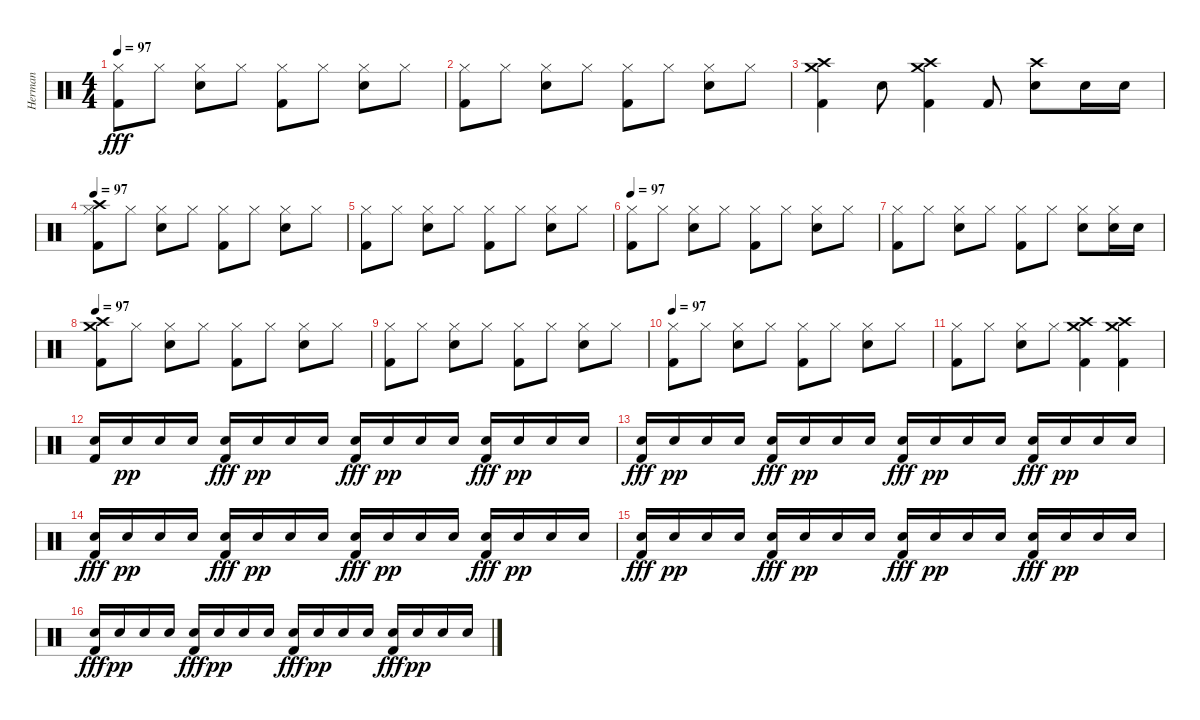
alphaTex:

\track ("Herman" "Herman") {instrument percussion}
\staff {score}
\articulation defaults
\ts (4 4)
\tempo 97
\clef neutral
\ks c
("Hi-Hat (closed)" "Kick (hit) 2").8{dy fff} "Hi-Hat (closed)".8 ("Hi-Hat (closed)" "Snare (hit) 2").8 "Hi-Hat (closed)".8 ("Hi-Hat (closed)" "Kick (hit) 2").8 "Hi-Hat (closed)".8 ("Hi-Hat (closed)" "Snare (hit) 2").8 "Hi-Hat (closed)".8 |
("Hi-Hat (closed)" "Kick (hit) 2").8 "Hi-Hat (closed)".8 ("Hi-Hat (closed)" "Snare (hit) 2").8 "Hi-Hat (closed)".8 ("Hi-Hat (closed)" "Kick (hit) 2").8 "Hi-Hat (closed)".8 ("Hi-Hat (closed)" "Snare (hit) 2").8 "Hi-Hat (closed)".8 |
("Crash high (hit)" "Crash medium (hit)" "Kick (hit) 2").4 "Snare (hit) 2".8 ("Crash high (hit)" "Crash medium (hit)" "Kick (hit) 2").4 "Kick (hit) 2".8 ("Crash high (hit)" "Snare (hit) 2").8 "Snare (hit) 2".16 "Snare (hit) 2".16 |
\tempo 97
("Crash high (hit)" "Hi-Hat (closed)" "Kick (hit) 2").8 "Hi-Hat (closed)".8 ("Hi-Hat (closed)" "Snare (hit) 2").8 "Hi-Hat (closed)".8 ("Hi-Hat (closed)" "Kick (hit) 2").8 "Hi-Hat (closed)".8 ("Hi-Hat (closed)" "Snare (hit) 2").8 "Hi-Hat (closed)".8 |
("Hi-Hat (closed)" "Kick (hit) 2").8 "Hi-Hat (closed)".8 ("Hi-Hat (closed)" "Snare (hit) 2").8 "Hi-Hat (closed)".8 ("Hi-Hat (closed)" "Kick (hit) 2").8 "Hi-Hat (closed)".8 ("Hi-Hat (closed)" "Snare (hit) 2").8 "Hi-Hat (closed)".8 |
\tempo 97
("Hi-Hat (closed)" "Kick (hit) 2").8 "Hi-Hat (closed)".8 ("Hi-Hat (closed)" "Snare (hit) 2").8 "Hi-Hat (closed)".8 ("Hi-Hat (closed)" "Kick (hit) 2").8 "Hi-Hat (closed)".8 ("Hi-Hat (closed)" "Snare (hit) 2").8 "Hi-Hat (closed)".8 |
("Hi-Hat (closed)" "Kick (hit) 2").8 "Hi-Hat (closed)".8 ("Hi-Hat (closed)" "Snare (hit) 2").8 "Hi-Hat (closed)".8 ("Hi-Hat (closed)" "Kick (hit) 2").8 "Hi-Hat (closed)".8 ("Hi-Hat (closed)" "Snare (hit) 2").8 ("Hi-Hat (closed)" "Snare (hit) 2").16 "Snare (hit) 2".16 |
\tempo 97
("Crash high (hit)" "Crash medium (hit)" "Kick (hit) 2").8 "Hi-Hat (closed)".8 ("Hi-Hat (closed)" "Snare (hit) 2").8 "Hi-Hat (closed)".8 ("Hi-Hat (closed)" "Kick (hit) 2").8 "Hi-Hat (closed)".8 ("Hi-Hat (closed)" "Snare (hit) 2").8 "Hi-Hat (closed)".8 |
("Hi-Hat (closed)" "Kick (hit) 2").8 "Hi-Hat (closed)".8 ("Hi-Hat (closed)" "Snare (hit) 2").8 "Hi-Hat (closed)".8 ("Hi-Hat (closed)" "Kick (hit) 2").8 "Hi-Hat (closed)".8 ("Hi-Hat (closed)" "Snare (hit) 2").8 "Hi-Hat (closed)".8 |
\tempo 97
("Hi-Hat (closed)" "Kick (hit) 2").8 "Hi-Hat (closed)".8 ("Hi-Hat (closed)" "Snare (hit) 2").8 "Hi-Hat (closed)".8 ("Hi-Hat (closed)" "Kick (hit) 2").8 "Hi-Hat (closed)".8 ("Hi-Hat (closed)" "Snare (hit) 2").8 "Hi-Hat (closed)".8 |
("Hi-Hat (closed)" "Kick (hit) 2").8 "Hi-Hat (closed)".8 ("Hi-Hat (closed)" "Snare (hit) 2").8 "Hi-Hat (closed)".8 ("Crash high (hit)" "Crash medium (hit)" "Kick (hit) 2").4 ("Crash high (hit)" "Crash medium (hit)" "Kick (hit) 2").4 |
("Snare (hit) 2" "Kick (hit) 2").16 "Snare (hit) 2".16{dy pp} "Snare (hit) 2".16 "Snare (hit) 2".16 ("Snare (hit) 2" "Kick (hit) 2").16{dy fff} "Snare (hit) 2".16{dy pp} "Snare (hit) 2".16 "Snare (hit) 2".16 ("Snare (hit) 2" "Kick (hit) 2").16{dy fff} "Snare (hit) 2".16{dy pp} "Snare (hit) 2".16 "Snare (hit) 2".16 ("Snare (hit) 2" "Kick (hit) 2").16{dy fff} "Snare (hit) 2".16{dy pp} "Snare (hit) 2".16 "Snare (hit) 2".16 |
("Snare (hit) 2" "Kick (hit) 2").16{dy fff} "Snare (hit) 2".16{dy pp} "Snare (hit) 2".16 "Snare (hit) 2".16 ("Snare (hit) 2" "Kick (hit) 2").16{dy fff} "Snare (hit) 2".16{dy pp} "Snare (hit) 2".16 "Snare (hit) 2".16 ("Snare (hit) 2" "Kick (hit) 2").16{dy fff} "Snare (hit) 2".16{dy pp} "Snare (hit) 2".16 "Snare (hit) 2".16 ("Snare (hit) 2" "Kick (hit) 2").16{dy fff} "Snare (hit) 2".16{dy pp} "Snare (hit) 2".16 "Snare (hit) 2".16 |
("Snare (hit) 2" "Kick (hit) 2").16{dy fff} "Snare (hit) 2".16{dy pp} "Snare (hit) 2".16 "Snare (hit) 2".16 ("Snare (hit) 2" "Kick (hit) 2").16{dy fff} "Snare (hit) 2".16{dy pp} "Snare (hit) 2".16 "Snare (hit) 2".16 ("Snare (hit) 2" "Kick (hit) 2").16{dy fff} "Snare (hit) 2".16{dy pp} "Snare (hit) 2".16 "Snare (hit) 2".16 ("Snare (hit) 2" "Kick (hit) 2").16{dy fff} "Snare (hit) 2".16{dy pp} "Snare (hit) 2".16 "Snare (hit) 2".16 |
("Snare (hit) 2" "Kick (hit) 2").16{dy fff} "Snare (hit) 2".16{dy pp} "Snare (hit) 2".16 "Snare (hit) 2".16 ("Snare (hit) 2" "Kick (hit) 2").16{dy fff} "Snare (hit) 2".16{dy pp} "Snare (hit) 2".16 "Snare (hit) 2".16 ("Snare (hit) 2" "Kick (hit) 2").16{dy fff} "Snare (hit) 2".16{dy pp} "Snare (hit) 2".16 "Snare (hit) 2".16 ("Snare (hit) 2" "Kick (hit) 2").16{dy fff} "Snare (hit) 2".16{dy pp} "Snare (hit) 2".16 "Snare (hit) 2".16 |
("Snare (hit) 2" "Kick (hit) 2").16{dy fff} "Snare (hit) 2".16{dy pp} "Snare (hit) 2".16 "Snare (hit) 2".16 ("Snare (hit) 2" "Kick (hit) 2").16{dy fff} "Snare (hit) 2".16{dy pp} "Snare (hit) 2".16 "Snare (hit) 2".16 ("Snare (hit) 2" "Kick (hit) 2").16{dy fff} "Snare (hit) 2".16{dy pp} "Snare (hit) 2".16 "Snare (hit) 2".16 ("Snare (hit) 2" "Kick (hit) 2").16{dy fff} "Snare (hit) 2".16{dy pp} "Snare (hit) 2".16 "Snare (hit) 2".16
